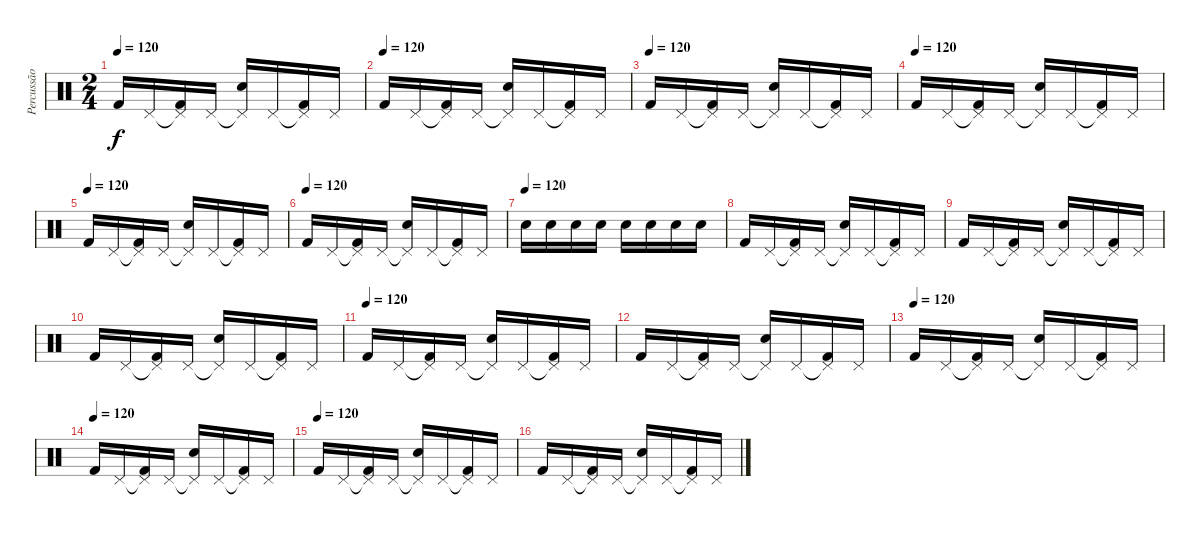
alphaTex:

\track ("Percussão" "Percussão") {instrument percussion}
\staff {score}
\articulation defaults
\ts (2 4)
\tempo 120
\clef neutral
\ks c "Kick (hit) 2".16{dy f} "Pedal Hi-Hat (hit)".16
("Pedal Hi-Hat (hit)"{t} "Kick (hit) 2").16 "Pedal Hi-Hat (hit)".16 ("Pedal Hi-Hat (hit)"{t} "Snare (hit) 2").16 "Pedal Hi-Hat (hit)".16 ("Pedal Hi-Hat (hit)"{t} "Kick (hit) 2").16 "Pedal Hi-Hat (hit)".16 |
\tempo (120)
"Kick (hit) 2".16 "Pedal Hi-Hat (hit)".16 ("Pedal Hi-Hat (hit)"{t} "Kick (hit) 2").16 "Pedal Hi-Hat (hit)".16 ("Pedal Hi-Hat (hit)"{t} "Snare (hit) 2").16 "Pedal Hi-Hat (hit)".16 ("Pedal Hi-Hat (hit)"{t} "Kick (hit) 2").16 "Pedal Hi-Hat (hit)".16 |
\tempo (120)
"Kick (hit) 2".16 "Pedal Hi-Hat (hit)".16 ("Pedal Hi-Hat (hit)"{t} "Kick (hit) 2").16 "Pedal Hi-Hat (hit)".16 ("Pedal Hi-Hat (hit)"{t} "Snare (hit) 2").16 "Pedal Hi-Hat (hit)".16 ("Pedal Hi-Hat (hit)"{t} "Kick (hit) 2").16 "Pedal Hi-Hat (hit)".16 |
\tempo (120)
"Kick (hit) 2".16 "Pedal Hi-Hat (hit)".16 ("Pedal Hi-Hat (hit)"{t} "Kick (hit) 2").16 "Pedal Hi-Hat (hit)".16 ("Pedal Hi-Hat (hit)"{t} "Snare (hit) 2").16 "Pedal Hi-Hat (hit)".16 ("Pedal Hi-Hat (hit)"{t} "Kick (hit) 2").16 "Pedal Hi-Hat (hit)".16 |
\tempo (120)
"Kick (hit) 2".16 "Pedal Hi-Hat (hit)".16 ("Pedal Hi-Hat (hit)"{t} "Kick (hit) 2").16 "Pedal Hi-Hat (hit)".16 ("Pedal Hi-Hat (hit)"{t} "Snare (hit) 2").16 "Pedal Hi-Hat (hit)".16 ("Pedal Hi-Hat (hit)"{t} "Kick (hit) 2").16 "Pedal Hi-Hat (hit)".16 |
\tempo (120)
"Kick (hit) 2".16 "Pedal Hi-Hat (hit)".16 ("Pedal Hi-Hat (hit)"{t} "Kick (hit) 2").16 "Pedal Hi-Hat (hit)".16 ("Pedal Hi-Hat (hit)"{t} "Snare (hit) 2").16 "Pedal Hi-Hat (hit)".16 ("Pedal Hi-Hat (hit)"{t} "Kick (hit) 2").16 "Pedal Hi-Hat (hit)".16 |
\tempo (120)
"Snare (hit) 2".16 "Snare (hit) 2".16 "Snare (hit) 2".16 "Snare (hit) 2".16 "Snare (hit) 2".16 "Snare (hit) 2".16 "Snare (hit) 2".16 "Snare (hit) 2".16 |
"Kick (hit) 2".16 "Pedal Hi-Hat (hit)".16 ("Pedal Hi-Hat (hit)"{t} "Kick (hit) 2").16 "Pedal Hi-Hat (hit)".16 ("Pedal Hi-Hat (hit)"{t} "Snare (hit) 2").16 "Pedal Hi-Hat (hit)".16 ("Pedal Hi-Hat (hit)"{t} "Kick (hit) 2").16 "Pedal Hi-Hat (hit)".16 |
"Kick (hit) 2".16 "Pedal Hi-Hat (hit)".16 ("Pedal Hi-Hat (hit)"{t} "Kick (hit) 2").16 "Pedal Hi-Hat (hit)".16 ("Pedal Hi-Hat (hit)"{t} "Snare (hit) 2").16 "Pedal Hi-Hat (hit)".16 ("Pedal Hi-Hat (hit)"{t} "Kick (hit) 2").16 "Pedal Hi-Hat (hit)".16 |
"Kick (hit) 2".16 "Pedal Hi-Hat (hit)".16 ("Pedal Hi-Hat (hit)"{t} "Kick (hit) 2").16 "Pedal Hi-Hat (hit)".16 ("Pedal Hi-Hat (hit)"{t} "Snare (hit) 2").16 "Pedal Hi-Hat (hit)".16 ("Pedal Hi-Hat (hit)"{t} "Kick (hit) 2").16 "Pedal Hi-Hat (hit)".16 |
\tempo (120)
"Kick (hit) 2".16 "Pedal Hi-Hat (hit)".16 ("Pedal Hi-Hat (hit)"{t} "Kick (hit) 2").16 "Pedal Hi-Hat (hit)".16 ("Pedal Hi-Hat (hit)"{t} "Snare (hit) 2").16 "Pedal Hi-Hat (hit)".16 ("Pedal Hi-Hat (hit)"{t} "Kick (hit) 2").16 "Pedal Hi-Hat (hit)".16 |
"Kick (hit) 2".16 "Pedal Hi-Hat (hit)".16 ("Pedal Hi-Hat (hit)"{t} "Kick (hit) 2").16 "Pedal Hi-Hat (hit)".16 ("Pedal Hi-Hat (hit)"{t} "Snare (hit) 2").16 "Pedal Hi-Hat (hit)".16 ("Pedal Hi-Hat (hit)"{t} "Kick (hit) 2").16 "Pedal Hi-Hat (hit)".16 |
\tempo (120)
"Kick (hit) 2".16 "Pedal Hi-Hat (hit)".16 ("Pedal Hi-Hat (hit)"{t} "Kick (hit) 2").16 "Pedal Hi-Hat (hit)".16 ("Pedal Hi-Hat (hit)"{t} "Snare (hit) 2").16 "Pedal Hi-Hat (hit)".16 ("Pedal Hi-Hat (hit)"{t} "Kick (hit) 2").16 "Pedal Hi-Hat (hit)".16 |
\tempo (120)
"Kick (hit) 2".16 "Pedal Hi-Hat (hit)".16 ("Pedal Hi-Hat (hit)"{t} "Kick (hit) 2").16 "Pedal Hi-Hat (hit)".16 ("Pedal Hi-Hat (hit)"{t} "Snare (hit) 2").16 "Pedal Hi-Hat (hit)".16 ("Pedal Hi-Hat (hit)"{t} "Kick (hit) 2").16 "Pedal Hi-Hat (hit)".16 |
\tempo (120)
"Kick (hit) 2".16 "Pedal Hi-Hat (hit)".16 ("Pedal Hi-Hat (hit)"{t} "Kick (hit) 2").16 "Pedal Hi-Hat (hit)".16 ("Pedal Hi-Hat (hit)"{t} "Snare (hit) 2").16 "Pedal Hi-Hat (hit)".16 ("Pedal Hi-Hat (hit)"{t} "Kick (hit) 2").16 "Pedal Hi-Hat (hit)".16 |
"Kick (hit) 2".16 "Pedal Hi-Hat (hit)".16 ("Pedal Hi-Hat (hit)"{t} "Kick (hit) 2").16 "Pedal Hi-Hat (hit)".16 ("Pedal Hi-Hat (hit)"{t} "Snare (hit) 2").16 "Pedal Hi-Hat (hit)".16 ("Pedal Hi-Hat (hit)"{t} "Kick (hit) 2").16 "Pedal Hi-Hat (hit)".16
